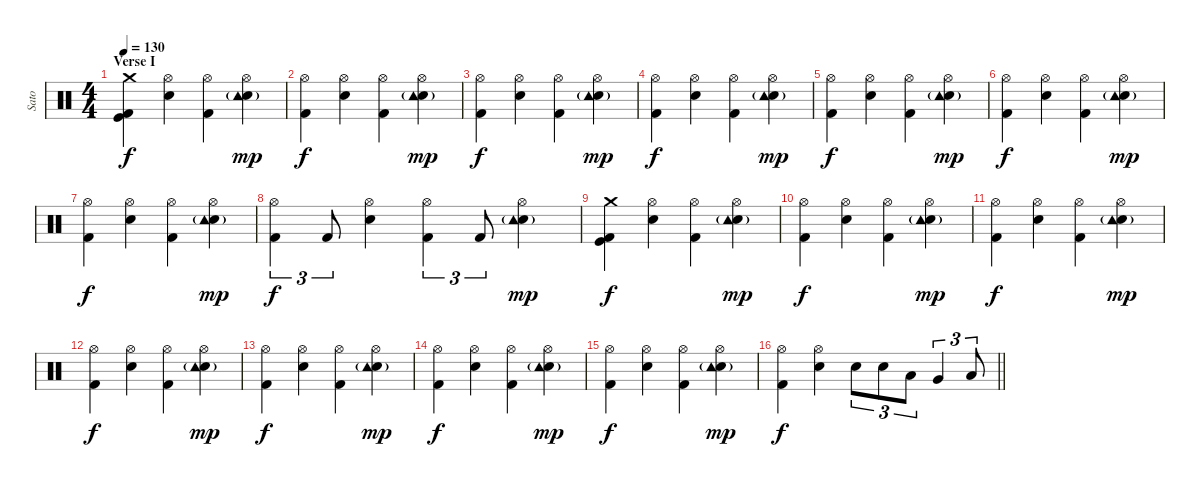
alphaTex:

\track ("Sato" "Sato") {instrument percussion}
\staff {score}
\articulation defaults
\ts (4 4)
\section ("" "Verse I")
\tempo 130
\clef neutral
\ks c
("Crash medium (hit)" "Kick (hit) 2" "Kick (hit)").4{dy f} ("Hi-Hat (open)" "Electric Snare (hit)").4 ("Hi-Hat (open)" "Kick (hit) 2").4 ("Hi-Hat (open)" "Electric Snare (hit)" "Tambourine (hit)"{g}).4{dy mp} |
("Hi-Hat (open)" "Kick (hit) 2").4{dy f} ("Hi-Hat (open)" "Electric Snare (hit)").4 ("Hi-Hat (open)" "Kick (hit) 2").4 ("Hi-Hat (open)" "Electric Snare (hit)" "Tambourine (hit)"{g}).4{dy mp} |
("Hi-Hat (open)" "Kick (hit) 2").4{dy f} ("Hi-Hat (open)" "Electric Snare (hit)").4 ("Hi-Hat (open)" "Kick (hit) 2").4 ("Hi-Hat (open)" "Electric Snare (hit)" "Tambourine (hit)"{g}).4{dy mp} |
("Hi-Hat (open)" "Kick (hit) 2").4{dy f} ("Hi-Hat (open)" "Electric Snare (hit)").4 ("Hi-Hat (open)" "Kick (hit) 2").4 ("Hi-Hat (open)" "Electric Snare (hit)" "Tambourine (hit)"{g}).4{dy mp} |
("Hi-Hat (open)" "Kick (hit) 2").4{dy f} ("Hi-Hat (open)" "Electric Snare (hit)").4 ("Hi-Hat (open)" "Kick (hit) 2").4 ("Hi-Hat (open)" "Electric Snare (hit)" "Tambourine (hit)"{g}).4{dy mp} |
("Hi-Hat (open)" "Kick (hit) 2").4{dy f} ("Hi-Hat (open)" "Electric Snare (hit)").4 ("Hi-Hat (open)" "Kick (hit) 2").4 ("Hi-Hat (open)" "Electric Snare (hit)" "Tambourine (hit)"{g}).4{dy mp} |
("Hi-Hat (open)" "Kick (hit) 2").4{dy f} ("Hi-Hat (open)" "Electric Snare (hit)").4 ("Hi-Hat (open)" "Kick (hit) 2").4 ("Hi-Hat (open)" "Electric Snare (hit)" "Tambourine (hit)"{g}).4{dy mp} |
("Hi-Hat (open)" "Kick (hit) 2").4{tu (3 2) dy f} "Kick (hit) 2".8{tu (3 2)} ("Hi-Hat (open)" "Electric Snare (hit)").4 ("Hi-Hat (open)" "Kick (hit) 2").4{tu (3 2)} "Kick (hit) 2".8{tu (3 2)} ("Hi-Hat (open)" "Electric Snare (hit)" "Tambourine (hit)"{g}).4{dy mp} |
("Crash medium (hit)" "Kick (hit) 2" "Kick (hit)").4{dy f} ("Hi-Hat (open)" "Electric Snare (hit)").4 ("Hi-Hat (open)" "Kick (hit) 2").4 ("Hi-Hat (open)" "Electric Snare (hit)" "Tambourine (hit)"{g}).4{dy mp} |
("Hi-Hat (open)" "Kick (hit) 2").4{dy f} ("Hi-Hat (open)" "Electric Snare (hit)").4 ("Hi-Hat (open)" "Kick (hit) 2").4 ("Hi-Hat (open)" "Electric Snare (hit)" "Tambourine (hit)"{g}).4{dy mp} |
("Hi-Hat (open)" "Kick (hit) 2").4{dy f} ("Hi-Hat (open)" "Electric Snare (hit)").4 ("Hi-Hat (open)" "Kick (hit) 2").4 ("Hi-Hat (open)" "Electric Snare (hit)" "Tambourine (hit)"{g}).4{dy mp} |
("Hi-Hat (open)" "Kick (hit) 2").4{dy f} ("Hi-Hat (open)" "Electric Snare (hit)").4 ("Hi-Hat (open)" "Kick (hit) 2").4 ("Hi-Hat (open)" "Electric Snare (hit)" "Tambourine (hit)"{g}).4{dy mp} |
("Hi-Hat (open)" "Kick (hit) 2").4{dy f} ("Hi-Hat (open)" "Electric Snare (hit)").4 ("Hi-Hat (open)" "Kick (hit) 2").4 ("Hi-Hat (open)" "Electric Snare (hit)" "Tambourine (hit)"{g}).4{dy mp} |
("Hi-Hat (open)" "Kick (hit) 2").4{dy f} ("Hi-Hat (open)" "Electric Snare (hit)").4 ("Hi-Hat (open)" "Kick (hit) 2").4 ("Hi-Hat (open)" "Electric Snare (hit)" "Tambourine (hit)"{g}).4{dy mp} |
("Hi-Hat (open)" "Kick (hit) 2").4{dy f} ("Hi-Hat (open)" "Electric Snare (hit)").4 ("Hi-Hat (open)" "Kick (hit) 2").4 ("Hi-Hat (open)" "Electric Snare (hit)" "Tambourine (hit)"{g}).4{dy mp} |
\barLineRight lightlight
("Hi-Hat (open)" "Kick (hit) 2").4{dy f} ("Hi-Hat (open)" "Electric Snare (hit)").4 "Electric Snare (hit)".8{tu (3 2)} "Electric Snare (hit)".8{tu (3 2)} "Low Tom (hit)".8{tu (3 2)} "Very Low Tom (hit)".4{tu (3 2)} "Low Floor Tom (hit)".8{tu (3 2)}
